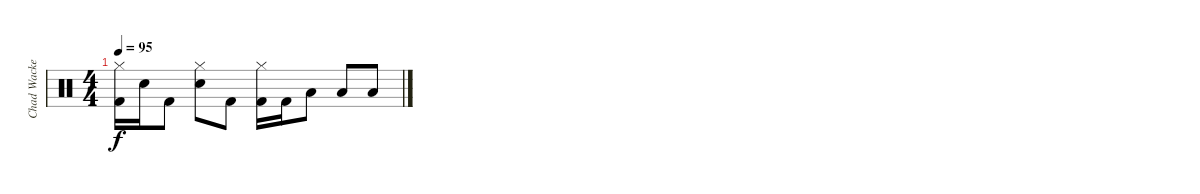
\track ("Chad Wackerman" "Chad Wacke") {instrument percussion}
\staff {score}
\articulation defaults
\ts (4 4)
\tempo 95
\clef neutral
\ks c
("Hi-Hat (closed)" "Kick (hit) 2").16{dy f} "Electric Snare (hit)".16 "Kick (hit) 2".8 ("Hi-Hat (closed)" "Electric Snare (hit)").8 "Kick (hit) 2".8 ("Hi-Hat (closed)" "Kick (hit) 2").16 "Kick (hit) 2".16 "Low Floor Tom (hit)".8 "Low Floor Tom (hit)".8 "Low Floor Tom (hit)".8
